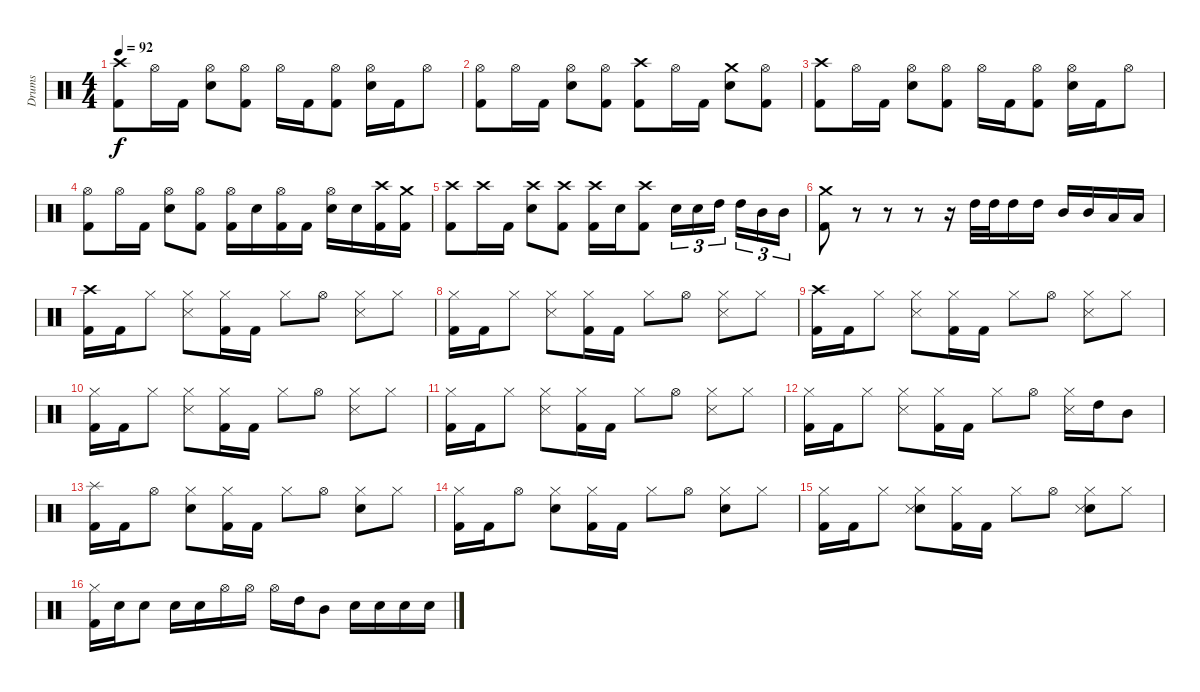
\track ("Drums" "Drums") {instrument percussion}
\staff {score}
\articulation defaults
\ts (4 4)
\tempo 92
\clef neutral
\ks c
("Crash high (hit)" "Kick (hit) 2").8{dy f} "Hi-Hat (open)".16 "Kick (hit) 2".16 ("Hi-Hat (open)" "Snare (hit) 2").8 ("Hi-Hat (open)" "Kick (hit) 2").8 "Hi-Hat (open)".16 "Kick (hit) 2".16 ("Hi-Hat (open)" "Kick (hit) 2").8 ("Hi-Hat (open)" "Snare (hit) 2").16 "Kick (hit) 2".16 "Hi-Hat (open)".8 |
("Hi-Hat (open)" "Kick (hit) 2").8 "Hi-Hat (open)".16 "Kick (hit) 2".16 ("Hi-Hat (open)" "Snare (hit) 2").8 ("Hi-Hat (open)" "Kick (hit) 2").8 ("Crash high (hit)" "Kick (hit) 2").8 "Hi-Hat (open)".16 "Kick (hit) 2".16 ("Crash medium (hit)" "Snare (hit) 2").8 ("Hi-Hat (open)" "Kick (hit) 2").8 |
("Crash high (hit)" "Kick (hit) 2").8 "Hi-Hat (open)".16 "Kick (hit) 2".16 ("Hi-Hat (open)" "Snare (hit) 2").8 ("Hi-Hat (open)" "Kick (hit) 2").8 "Hi-Hat (open)".16 "Kick (hit) 2".16 ("Hi-Hat (open)" "Kick (hit) 2").8 ("Hi-Hat (open)" "Snare (hit) 2").16 "Kick (hit) 2".16 "Hi-Hat (open)".8 |
("Hi-Hat (open)" "Kick (hit) 2").8 "Hi-Hat (open)".16 "Kick (hit) 2".16 ("Hi-Hat (open)" "Snare (hit) 2").8 ("Hi-Hat (open)" "Kick (hit) 2").8 ("Hi-Hat (open)" "Kick (hit) 2").16 "Snare (hit) 2".16 ("Hi-Hat (open)" "Kick (hit) 2").16 "Kick (hit) 2".16 ("Hi-Hat (open)" "Snare (hit) 2").16 "Snare (hit) 2".16 ("Crash high (hit)" "Kick (hit) 2").16 ("Crash medium (hit)" "Kick (hit) 2").16 |
("Crash high (hit)" "Kick (hit) 2").8 "Crash high (hit)".16 "Kick (hit) 2".16 ("Crash high (hit)" "Snare (hit) 2").8 ("Crash high (hit)" "Kick (hit) 2").8 ("Crash high (hit)" "Kick (hit) 2").16 "Snare (hit) 2".16 ("Crash high (hit)" "Kick (hit) 2").8 "Snare (hit) 2".16{tu (3 2)} "Snare (hit) 2".16{tu (3 2)} "High Tom (hit)".16{tu (3 2) beam splitsecondary} "High Tom (hit)".16{tu (3 2)} "Mid Tom (hit)".16{tu (3 2)} "Mid Tom (hit)".16{tu (3 2)} |
("Crash medium (hit)" "Kick (hit) 2").8 r.8 r.8 r.8 r.16 "High Tom (hit)".32 "High Tom (hit)".32 "High Tom (hit)".16 "High Tom (hit)".16 "Mid Tom (hit)".16 "Mid Tom (hit)".16 "Low Floor Tom (hit)".16 "Low Floor Tom (hit)".16 |
("Crash high (hit)" "Kick (hit) 2").16 "Kick (hit) 2".16 "Hi-Hat (closed)".8 ("Hi-Hat (closed)" "Snare (side stick) 3").8 ("Hi-Hat (closed)" "Kick (hit) 2").16 "Kick (hit) 2".16 "Hi-Hat (closed)".8 "Hi-Hat (open)".8 ("Hi-Hat (closed)" "Snare (side stick) 3").8 "Hi-Hat (closed)".8 |
("Hi-Hat (closed)" "Kick (hit) 2").16 "Kick (hit) 2".16 "Hi-Hat (closed)".8 ("Hi-Hat (closed)" "Snare (side stick) 3").8 ("Hi-Hat (closed)" "Kick (hit) 2").16 "Kick (hit) 2".16 "Hi-Hat (closed)".8 "Hi-Hat (open)".8 ("Hi-Hat (closed)" "Snare (side stick) 3").8 "Hi-Hat (closed)".8 |
("Crash high (hit)" "Kick (hit) 2").16 "Kick (hit) 2".16 "Hi-Hat (closed)".8 ("Hi-Hat (closed)" "Snare (side stick) 3").8 ("Hi-Hat (closed)" "Kick (hit) 2").16 "Kick (hit) 2".16 "Hi-Hat (closed)".8 "Hi-Hat (open)".8 ("Hi-Hat (closed)" "Snare (side stick) 3").8 "Hi-Hat (closed)".8 |
("Hi-Hat (closed)" "Kick (hit) 2").16 "Kick (hit) 2".16 "Hi-Hat (closed)".8 ("Hi-Hat (closed)" "Snare (side stick) 3").8 ("Hi-Hat (closed)" "Kick (hit) 2").16 "Kick (hit) 2".16 "Hi-Hat (closed)".8 "Hi-Hat (open)".8 ("Hi-Hat (closed)" "Snare (side stick) 3").8 "Hi-Hat (closed)".8 |
("Hi-Hat (closed)" "Kick (hit) 2").16 "Kick (hit) 2".16 "Hi-Hat (closed)".8 ("Hi-Hat (closed)" "Snare (side stick) 3").8 ("Hi-Hat (closed)" "Kick (hit) 2").16 "Kick (hit) 2".16 "Hi-Hat (closed)".8 "Hi-Hat (open)".8 ("Hi-Hat (closed)" "Snare (side stick) 3").8 "Hi-Hat (closed)".8 |
("Hi-Hat (closed)" "Kick (hit) 2").16 "Kick (hit) 2".16 "Hi-Hat (closed)".8 ("Hi-Hat (closed)" "Snare (side stick) 3").8 ("Hi-Hat (closed)" "Kick (hit) 2").16 "Kick (hit) 2".16 "Hi-Hat (closed)".8 "Hi-Hat (open)".8 ("Hi-Hat (closed)" "Snare (side stick) 3").16 "High Tom (hit)".16 "Mid Tom (hit)".8 |
("Splash (hit)" "Kick (hit) 2").16 "Kick (hit) 2".16 "Hi-Hat (open)".8 ("Hi-Hat (closed)" "Electric Snare (hit)").8 ("Hi-Hat (closed)" "Kick (hit) 2").16 "Kick (hit) 2".16 "Hi-Hat (closed)".8 "Hi-Hat (open)".8 ("Hi-Hat (closed)" "Electric Snare (hit)").8 "Hi-Hat (closed)".8 |
("Hi-Hat (closed)" "Kick (hit) 2").16 "Kick (hit) 2".16 "Hi-Hat (open)".8 ("Hi-Hat (closed)" "Electric Snare (hit)").8 ("Hi-Hat (closed)" "Kick (hit) 2").16 "Kick (hit) 2".16 "Hi-Hat (closed)".8 "Hi-Hat (open)".8 ("Hi-Hat (closed)" "Electric Snare (hit)").8 "Hi-Hat (closed)".8 |
("Hi-Hat (closed)" "Kick (hit) 2").16 "Kick (hit) 2".16 "Hi-Hat (closed)".8 ("Hi-Hat (closed)" "Electric Snare (hit)" "Snare (side stick) 3").8 ("Hi-Hat (closed)" "Kick (hit) 2").16 "Kick (hit) 2".16 "Hi-Hat (closed)".8 "Hi-Hat (open)".8 ("Hi-Hat (closed)" "Electric Snare (hit)" "Snare (side stick) 3").8 "Hi-Hat (closed)".8 |
("Hi-Hat (closed)" "Kick (hit) 2").16 "Electric Snare (hit)".16 "Electric Snare (hit)".8 "Electric Snare (hit)".16 "Electric Snare (hit)".16 "Hi-Hat (open)".16 "Hi-Hat (open)".16 "Hi-Hat (open)".16 "High Tom (hit)".16 "Mid Tom (hit)".8 "Snare (hit) 2".16 "Snare (hit) 2".16 "Snare (hit) 2".16 "Snare (hit) 2".16
